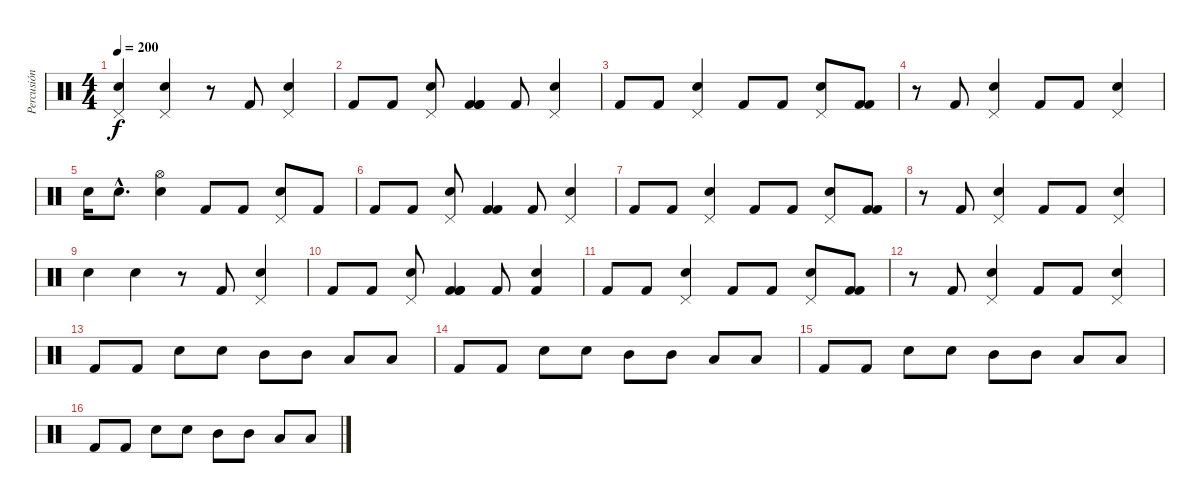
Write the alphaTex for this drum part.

\track ("Percusión" "Percusión") {instrument percussion}
\staff {score}
\articulation defaults
\ts (4 4)
\tempo 200
\clef neutral
\ks c
("Electric Snare (hit)" "Pedal Hi-Hat (hit)").4{dy f} ("Electric Snare (hit)" "Pedal Hi-Hat (hit)").4 r.8 "Kick (hit) 2".8 ("Electric Snare (hit)" "Pedal Hi-Hat (hit)").4 |
"Kick (hit) 2".8 "Kick (hit) 2".8 ("Electric Snare (hit)" "Pedal Hi-Hat (hit)").8 ("Kick (hit) 2" "Kick (hit) 2" "Kick (hit) 2").4 "Kick (hit) 2".8 ("Electric Snare (hit)" "Pedal Hi-Hat (hit)").4 |
"Kick (hit) 2".8 "Kick (hit) 2".8 ("Electric Snare (hit)" "Pedal Hi-Hat (hit)").4 "Kick (hit) 2".8 "Kick (hit) 2".8 ("Electric Snare (hit)" "Pedal Hi-Hat (hit)").8 ("Kick (hit) 2" "Kick (hit) 2").8 |
r.8 "Kick (hit) 2".8 ("Electric Snare (hit)" "Pedal Hi-Hat (hit)").4 "Kick (hit) 2".8 "Kick (hit) 2".8 ("Electric Snare (hit)" "Pedal Hi-Hat (hit)").4 |
"Electric Snare (hit)".16 "Electric Snare (hit)"{hac}.8{d} ("Electric Snare (hit)" "Hi-Hat (open)").4 "Kick (hit) 2".8 "Kick (hit) 2".8 ("Electric Snare (hit)" "Pedal Hi-Hat (hit)").8 "Kick (hit) 2".8 |
"Kick (hit) 2".8 "Kick (hit) 2".8 ("Electric Snare (hit)" "Pedal Hi-Hat (hit)").8 ("Kick (hit) 2" "Kick (hit) 2").4 "Kick (hit) 2".8 ("Electric Snare (hit)" "Pedal Hi-Hat (hit)").4 |
"Kick (hit) 2".8 "Kick (hit) 2".8 ("Electric Snare (hit)" "Pedal Hi-Hat (hit)").4 "Kick (hit) 2".8 "Kick (hit) 2".8 ("Electric Snare (hit)" "Pedal Hi-Hat (hit)").8 ("Kick (hit) 2" "Kick (hit) 2").8 |
r.8 "Kick (hit) 2".8 ("Electric Snare (hit)" "Pedal Hi-Hat (hit)").4 "Kick (hit) 2".8 "Kick (hit) 2".8 ("Electric Snare (hit)" "Pedal Hi-Hat (hit)").4 |
"Electric Snare (hit)".4 "Electric Snare (hit)".4 r.8 "Kick (hit) 2".8 ("Electric Snare (hit)" "Pedal Hi-Hat (hit)").4 |
"Kick (hit) 2".8 "Kick (hit) 2".8 ("Electric Snare (hit)" "Pedal Hi-Hat (hit)").8 ("Kick (hit) 2" "Kick (hit) 2" "Kick (hit) 2").4 "Kick (hit) 2".8 ("Electric Snare (hit)" "Kick (hit) 2").4 |
"Kick (hit) 2".8 "Kick (hit) 2".8 ("Electric Snare (hit)" "Pedal Hi-Hat (hit)").4 "Kick (hit) 2".8 "Kick (hit) 2".8 ("Electric Snare (hit)" "Pedal Hi-Hat (hit)").8 ("Kick (hit) 2" "Kick (hit) 2").8 |
r.8 "Kick (hit) 2".8 ("Electric Snare (hit)" "Pedal Hi-Hat (hit)").4 "Kick (hit) 2".8 "Kick (hit) 2".8 ("Electric Snare (hit)" "Pedal Hi-Hat (hit)").4 |
"Kick (hit) 2".8 "Kick (hit) 2".8 "Electric Snare (hit)".8 "Electric Snare (hit)".8 "Mid Tom (hit)".8 "Mid Tom (hit)".8 "Low Tom (hit)".8 "Low Tom (hit)".8 |
"Kick (hit) 2".8 "Kick (hit) 2".8 "Electric Snare (hit)".8 "Electric Snare (hit)".8 "Mid Tom (hit)".8 "Mid Tom (hit)".8 "Low Tom (hit)".8 "Low Tom (hit)".8 |
"Kick (hit) 2".8 "Kick (hit) 2".8 "Electric Snare (hit)".8 "Electric Snare (hit)".8 "Mid Tom (hit)".8 "Mid Tom (hit)".8 "Low Tom (hit)".8 "Low Tom (hit)".8 |
"Kick (hit) 2".8 "Kick (hit) 2".8 "Electric Snare (hit)".8 "Electric Snare (hit)".8 "Mid Tom (hit)".8 "Mid Tom (hit)".8 "Low Tom (hit)".8 "Low Tom (hit)".8
